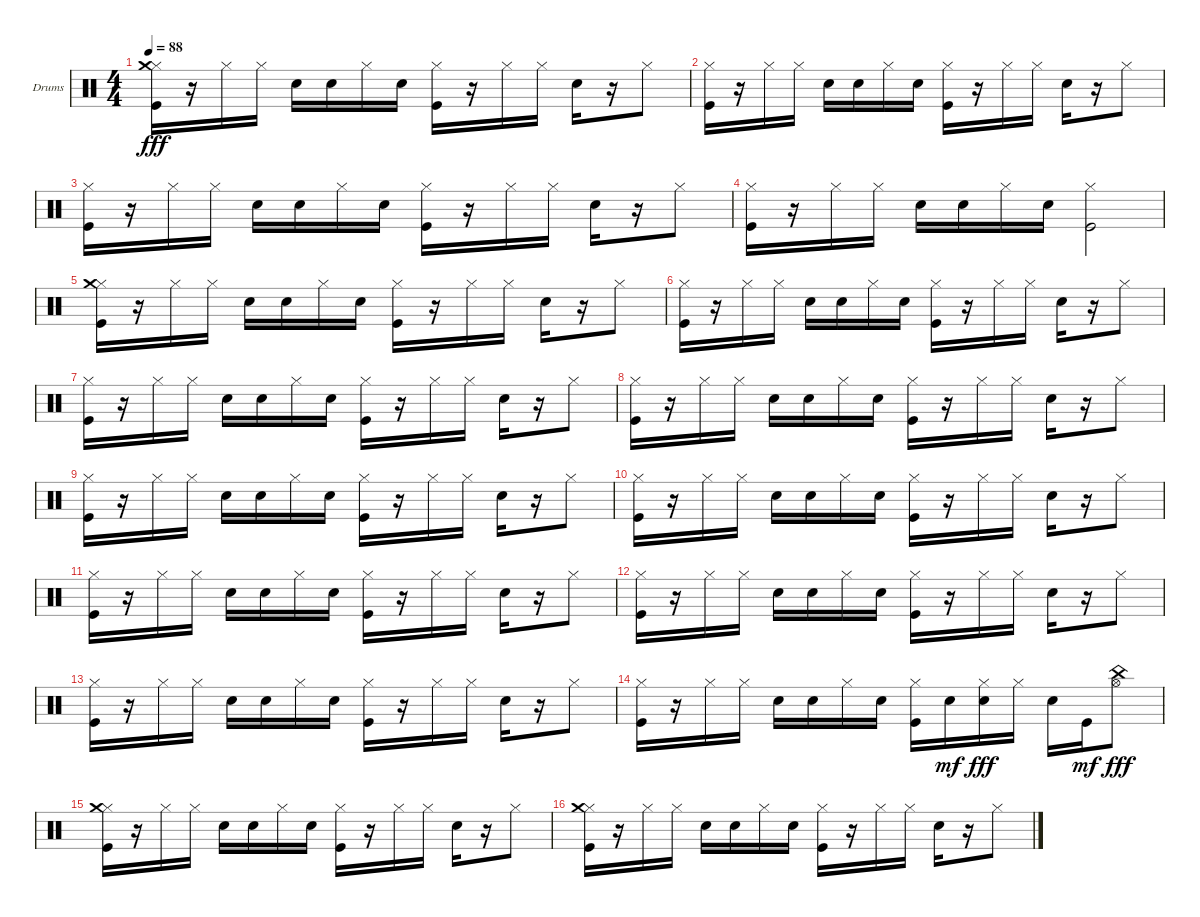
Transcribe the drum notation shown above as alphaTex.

\defaultSystemsLayout 4
\bracketExtendMode groupsimilarinstruments
\firstSystemTrackNameOrientation horizontal
\otherSystemsTrackNameOrientation horizontal
\track ("Drumkit" "Drums") {instrument percussion}
\staff {score}
\articulation defaults
\ts (4 4)
\tempo 88
\clef neutral
\ks c
("Hi-Hat (closed)" "Kick (hit)" "Crash medium (hit)").16{dy fff} r.16 "Hi-Hat (closed)".16 "Hi-Hat (closed)".16 "Snare (hit) 2".16 "Snare (hit) 2".16 "Hi-Hat (closed)".16 "Snare (hit) 2".16 ("Hi-Hat (closed)" "Kick (hit)").16 r.16 "Hi-Hat (closed)".16 "Hi-Hat (closed)".16 "Snare (hit) 2".16 r.16 "Hi-Hat (closed)".8 |
("Hi-Hat (closed)" "Kick (hit)").16 r.16 "Hi-Hat (closed)".16 "Hi-Hat (closed)".16 "Snare (hit) 2".16 "Snare (hit) 2".16 "Hi-Hat (closed)".16 "Snare (hit) 2".16 ("Hi-Hat (closed)" "Kick (hit)").16 r.16 "Hi-Hat (closed)".16 "Hi-Hat (closed)".16 "Snare (hit) 2".16 r.16 "Hi-Hat (closed)".8 |
("Hi-Hat (closed)" "Kick (hit)").16 r.16 "Hi-Hat (closed)".16 "Hi-Hat (closed)".16 "Snare (hit) 2".16 "Snare (hit) 2".16 "Hi-Hat (closed)".16 "Snare (hit) 2".16 ("Hi-Hat (closed)" "Kick (hit)").16 r.16 "Hi-Hat (closed)".16 "Hi-Hat (closed)".16 "Snare (hit) 2".16 r.16 "Hi-Hat (closed)".8 |
("Hi-Hat (closed)" "Kick (hit)").16 r.16 "Hi-Hat (closed)".16 "Hi-Hat (closed)".16 "Snare (hit) 2".16 "Snare (hit) 2".16 "Hi-Hat (closed)".16 "Snare (hit) 2".16 ("Hi-Hat (closed)" "Kick (hit)").2 |
("Hi-Hat (closed)" "Kick (hit)" "Crash medium (hit)").16 r.16 "Hi-Hat (closed)".16 "Hi-Hat (closed)".16 "Snare (hit) 2".16 "Snare (hit) 2".16 "Hi-Hat (closed)".16 "Snare (hit) 2".16 ("Hi-Hat (closed)" "Kick (hit)").16 r.16 "Hi-Hat (closed)".16 "Hi-Hat (closed)".16 "Snare (hit) 2".16 r.16 "Hi-Hat (closed)".8 |
("Hi-Hat (closed)" "Kick (hit)").16 r.16 "Hi-Hat (closed)".16 "Hi-Hat (closed)".16 "Snare (hit) 2".16 "Snare (hit) 2".16 "Hi-Hat (closed)".16 "Snare (hit) 2".16 ("Hi-Hat (closed)" "Kick (hit)").16 r.16 "Hi-Hat (closed)".16 "Hi-Hat (closed)".16 "Snare (hit) 2".16 r.16 "Hi-Hat (closed)".8 |
("Hi-Hat (closed)" "Kick (hit)").16 r.16 "Hi-Hat (closed)".16 "Hi-Hat (closed)".16 "Snare (hit) 2".16 "Snare (hit) 2".16 "Hi-Hat (closed)".16 "Snare (hit) 2".16 ("Hi-Hat (closed)" "Kick (hit)").16 r.16 "Hi-Hat (closed)".16 "Hi-Hat (closed)".16 "Snare (hit) 2".16 r.16 "Hi-Hat (closed)".8 |
("Hi-Hat (closed)" "Kick (hit)").16 r.16 "Hi-Hat (closed)".16 "Hi-Hat (closed)".16 "Snare (hit) 2".16 "Snare (hit) 2".16 "Hi-Hat (closed)".16 "Snare (hit) 2".16 ("Hi-Hat (closed)" "Kick (hit)").16 r.16 "Hi-Hat (closed)".16 "Hi-Hat (closed)".16 "Snare (hit) 2".16 r.16 "Hi-Hat (closed)".8 |
("Hi-Hat (closed)" "Kick (hit)").16 r.16 "Hi-Hat (closed)".16 "Hi-Hat (closed)".16 "Snare (hit) 2".16 "Snare (hit) 2".16 "Hi-Hat (closed)".16 "Snare (hit) 2".16 ("Hi-Hat (closed)" "Kick (hit)").16 r.16 "Hi-Hat (closed)".16 "Hi-Hat (closed)".16 "Snare (hit) 2".16 r.16 "Hi-Hat (closed)".8 |
("Hi-Hat (closed)" "Kick (hit)").16 r.16 "Hi-Hat (closed)".16 "Hi-Hat (closed)".16 "Snare (hit) 2".16 "Snare (hit) 2".16 "Hi-Hat (closed)".16 "Snare (hit) 2".16 ("Hi-Hat (closed)" "Kick (hit)").16 r.16 "Hi-Hat (closed)".16 "Hi-Hat (closed)".16 "Snare (hit) 2".16 r.16 "Hi-Hat (closed)".8 |
("Hi-Hat (closed)" "Kick (hit)").16 r.16 "Hi-Hat (closed)".16 "Hi-Hat (closed)".16 "Snare (hit) 2".16 "Snare (hit) 2".16 "Hi-Hat (closed)".16 "Snare (hit) 2".16 ("Hi-Hat (closed)" "Kick (hit)").16 r.16 "Hi-Hat (closed)".16 "Hi-Hat (closed)".16 "Snare (hit) 2".16 r.16 "Hi-Hat (closed)".8 |
("Hi-Hat (closed)" "Kick (hit)").16 r.16 "Hi-Hat (closed)".16 "Hi-Hat (closed)".16 "Snare (hit) 2".16 "Snare (hit) 2".16 "Hi-Hat (closed)".16 "Snare (hit) 2".16 ("Hi-Hat (closed)" "Kick (hit)").16 r.16 "Hi-Hat (closed)".16 "Hi-Hat (closed)".16 "Snare (hit) 2".16 r.16 "Hi-Hat (closed)".8 |
("Hi-Hat (closed)" "Kick (hit)").16 r.16 "Hi-Hat (closed)".16 "Hi-Hat (closed)".16 "Snare (hit) 2".16 "Snare (hit) 2".16 "Hi-Hat (closed)".16 "Snare (hit) 2".16 ("Hi-Hat (closed)" "Kick (hit)").16 r.16 "Hi-Hat (closed)".16 "Hi-Hat (closed)".16 "Snare (hit) 2".16 r.16 "Hi-Hat (closed)".8 |
("Hi-Hat (closed)" "Kick (hit)").16 r.16 "Hi-Hat (closed)".16 "Hi-Hat (closed)".16 "Snare (hit) 2".16 "Snare (hit) 2".16 "Hi-Hat (closed)".16 "Snare (hit) 2".16 ("Hi-Hat (closed)" "Kick (hit)").16 "Snare (hit) 2".16{dy mf} ("Hi-Hat (closed)" "Snare (hit) 2").16{dy fff} "Hi-Hat (closed)".16 "Snare (hit) 2".16 "Kick (hit)".16{dy mf} ("Hi-Hat (open)" "China (hit)").8{dy fff} |
("Hi-Hat (closed)" "Kick (hit)" "Crash medium (hit)").16 r.16 "Hi-Hat (closed)".16 "Hi-Hat (closed)".16 "Snare (hit) 2".16 "Snare (hit) 2".16 "Hi-Hat (closed)".16 "Snare (hit) 2".16 ("Hi-Hat (closed)" "Kick (hit)").16 r.16 "Hi-Hat (closed)".16 "Hi-Hat (closed)".16 "Snare (hit) 2".16 r.16 "Hi-Hat (closed)".8 |
("Hi-Hat (closed)" "Kick (hit)" "Crash medium (hit)").16 r.16 "Hi-Hat (closed)".16 "Hi-Hat (closed)".16 "Snare (hit) 2".16 "Snare (hit) 2".16 "Hi-Hat (closed)".16 "Snare (hit) 2".16 ("Hi-Hat (closed)" "Kick (hit)").16 r.16 "Hi-Hat (closed)".16 "Hi-Hat (closed)".16 "Snare (hit) 2".16 r.16 "Hi-Hat (closed)".8
